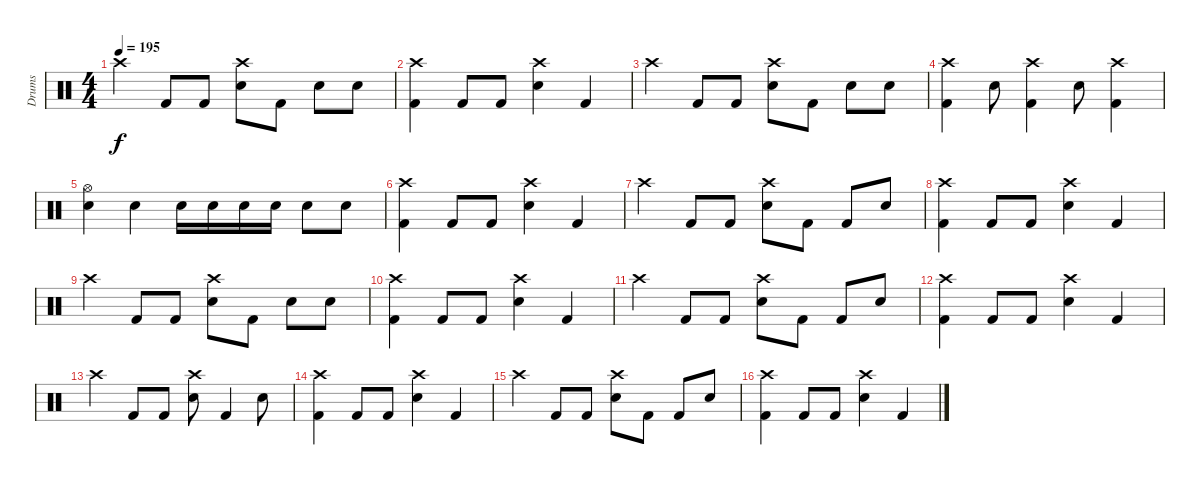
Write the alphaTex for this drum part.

\track ("Drums" "Drums") {instrument percussion}
\staff {score}
\articulation defaults
\ts (4 4)
\tempo 195
\clef neutral
\ks c "Crash high (hit)".4{dy f} "Kick (hit) 2".8 "Kick (hit) 2".8
("Crash high (hit)" "Electric Snare (hit)").8 "Kick (hit) 2".8 "Electric Snare (hit)".8 "Electric Snare (hit)".8 |
("Crash high (hit)" "Kick (hit) 2").4 "Kick (hit) 2".8 "Kick (hit) 2".8 ("Crash high (hit)" "Electric Snare (hit)").4 "Kick (hit) 2".4 |
"Crash high (hit)".4 "Kick (hit) 2".8 "Kick (hit) 2".8 ("Crash high (hit)" "Electric Snare (hit)").8 "Kick (hit) 2".8 "Electric Snare (hit)".8 "Electric Snare (hit)".8 |
("Crash high (hit)" "Kick (hit) 2").4 "Electric Snare (hit)".8 ("Crash high (hit)" "Kick (hit) 2").4 "Electric Snare (hit)".8 ("Crash high (hit)" "Kick (hit) 2").4 |
("Hi-Hat (open)" "Electric Snare (hit)").4 "Electric Snare (hit)".4 "Electric Snare (hit)".16 "Electric Snare (hit)".16 "Electric Snare (hit)".16 "Electric Snare (hit)".16 "Electric Snare (hit)".8 "Electric Snare (hit)".8 |
("Crash high (hit)" "Kick (hit) 2").4 "Kick (hit) 2".8 "Kick (hit) 2".8 ("Crash high (hit)" "Electric Snare (hit)").4 "Kick (hit) 2".4 |
"Crash high (hit)".4 "Kick (hit) 2".8 "Kick (hit) 2".8 ("Crash high (hit)" "Electric Snare (hit)").8 "Kick (hit) 2".8 "Kick (hit) 2".8 "Electric Snare (hit)".8 |
("Crash high (hit)" "Kick (hit) 2").4 "Kick (hit) 2".8 "Kick (hit) 2".8 ("Crash high (hit)" "Electric Snare (hit)").4 "Kick (hit) 2".4 |
"Crash high (hit)".4 "Kick (hit) 2".8 "Kick (hit) 2".8 ("Crash high (hit)" "Electric Snare (hit)").8 "Kick (hit) 2".8 "Electric Snare (hit)".8 "Electric Snare (hit)".8 |
("Crash high (hit)" "Kick (hit) 2").4 "Kick (hit) 2".8 "Kick (hit) 2".8 ("Crash high (hit)" "Electric Snare (hit)").4 "Kick (hit) 2".4 |
"Crash high (hit)".4 "Kick (hit) 2".8 "Kick (hit) 2".8 ("Crash high (hit)" "Electric Snare (hit)").8 "Kick (hit) 2".8 "Kick (hit) 2".8 "Electric Snare (hit)".8 |
("Crash high (hit)" "Kick (hit) 2").4 "Kick (hit) 2".8 "Kick (hit) 2".8 ("Crash high (hit)" "Electric Snare (hit)").4 "Kick (hit) 2".4 |
"Crash high (hit)".4 "Kick (hit) 2".8 "Kick (hit) 2".8 ("Crash high (hit)" "Electric Snare (hit)").8 "Kick (hit) 2".4 "Electric Snare (hit)".8 |
("Crash high (hit)" "Kick (hit) 2").4 "Kick (hit) 2".8 "Kick (hit) 2".8 ("Crash high (hit)" "Electric Snare (hit)").4 "Kick (hit) 2".4 |
"Crash high (hit)".4 "Kick (hit) 2".8 "Kick (hit) 2".8 ("Crash high (hit)" "Electric Snare (hit)").8 "Kick (hit) 2".8 "Kick (hit) 2".8 "Electric Snare (hit)".8 |
("Crash high (hit)" "Kick (hit) 2").4 "Kick (hit) 2".8 "Kick (hit) 2".8 ("Crash high (hit)" "Electric Snare (hit)").4 "Kick (hit) 2".4
